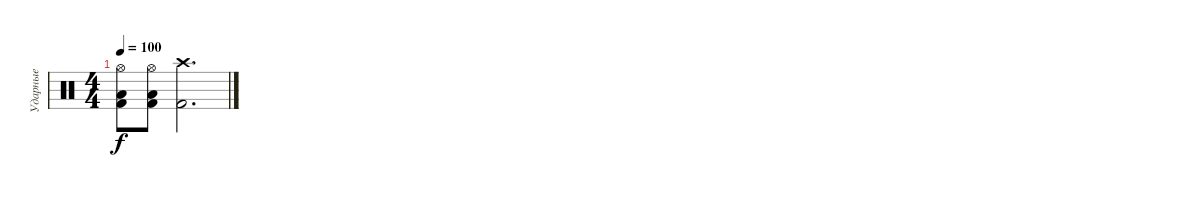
\track ("Ударные" "Ударные") {instrument percussion}
\staff {score}
\articulation defaults
\ts (4 4)
\tempo 100
\clef neutral
\ks c
("Hi-Hat (open)" "Low Floor Tom (hit)" "Kick (hit) 2").8{dy f} ("Hi-Hat (open)" "Low Floor Tom (hit)" "Kick (hit) 2").8 ("Crash high (hit)" "Kick (hit) 2").2{d}
